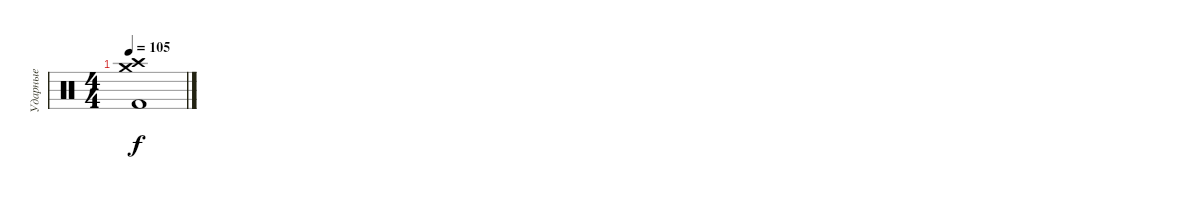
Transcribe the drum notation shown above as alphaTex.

\track ("Ударные" "Ударные") {instrument percussion}
\staff {score}
\articulation defaults
\ts (4 4)
\tempo 105
\clef neutral
\ks c
("Kick (hit) 2" "Crash high (hit)" "Crash medium (hit)").1{dy f}
